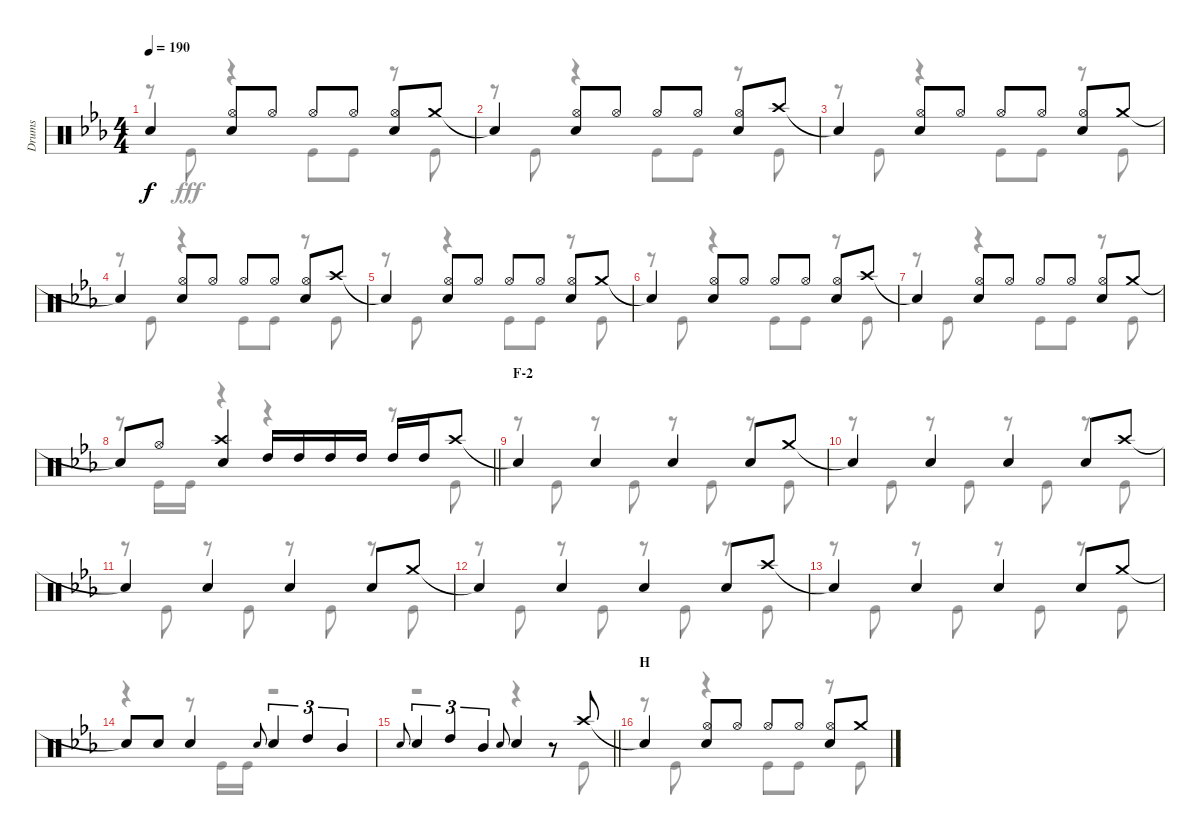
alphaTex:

\track ("Drums" "Drums") {instrument percussion}
\staff {score}
\articulation defaults
\voice
\ts (4 4)
\tempo 190
\clef neutral
\ks eb "Snare (hit)"{t}.4{dy f}
("Hi-Hat (open)" "Snare (hit) 2").8 "Hi-Hat (open)".8 "Hi-Hat (open)".8 "Hi-Hat (open)".8 ("Hi-Hat (open)" "Snare (hit) 2").8 "Crash medium (hit)".8 |
"Snare (hit)"{t}.4 ("Hi-Hat (open)" "Snare (hit) 2").8 "Hi-Hat (open)".8 "Hi-Hat (open)".8 "Hi-Hat (open)".8 ("Hi-Hat (open)" "Snare (hit) 2").8 "Crash high (hit)".8 |
"Snare (hit)"{t}.4 ("Hi-Hat (open)" "Snare (hit) 2").8 "Hi-Hat (open)".8 "Hi-Hat (open)".8 "Hi-Hat (open)".8 ("Hi-Hat (open)" "Snare (hit) 2").8 "Crash medium (hit)".8 |
"Snare (hit)"{t}.4 ("Hi-Hat (open)" "Snare (hit) 2").8 "Hi-Hat (open)".8 "Hi-Hat (open)".8 "Hi-Hat (open)".8 ("Hi-Hat (open)" "Snare (hit) 2").8 "Crash high (hit)".8 |
"Snare (hit)"{t}.4 ("Hi-Hat (open)" "Snare (hit) 2").8 "Hi-Hat (open)".8 "Hi-Hat (open)".8 "Hi-Hat (open)".8 ("Hi-Hat (open)" "Snare (hit) 2").8 "Crash medium (hit)".8 |
"Snare (hit)"{t}.4 ("Hi-Hat (open)" "Snare (hit) 2").8 "Hi-Hat (open)".8 "Hi-Hat (open)".8 "Hi-Hat (open)".8 ("Hi-Hat (open)" "Snare (hit) 2").8 "Crash high (hit)".8 |
"Snare (hit)"{t}.4 ("Hi-Hat (open)" "Snare (hit) 2").8 "Hi-Hat (open)".8 "Hi-Hat (open)".8 "Hi-Hat (open)".8 ("Hi-Hat (open)" "Snare (hit) 2").8 "Crash medium (hit)".8 |
\barLineRight lightlight "Snare (hit)"{t}.8 "Hi-Hat (open)".8
("Crash high (hit)" "Snare (hit) 2").4 "High Tom (hit)".16 "High Tom (hit)".16 "High Tom (hit)".16 "High Tom (hit)".16 "High Tom (hit)".16 "High Tom (hit)".16 "Crash high (hit)".8 |
\section ("" "F-2")
"Snare (hit)"{t}.4 "Snare (hit) 2".4 "Snare (hit) 2".4 "Snare (hit) 2".8 "Crash medium (hit)".8 |
"Snare (hit)"{t}.4 "Snare (hit) 2".4 "Snare (hit) 2".4 "Snare (hit) 2".8 "Crash high (hit)".8 |
"Snare (hit)"{t}.4 "Snare (hit) 2".4 "Snare (hit) 2".4 "Snare (hit) 2".8 "Crash medium (hit)".8 |
"Snare (hit)"{t}.4 "Snare (hit) 2".4 "Snare (hit) 2".4 "Snare (hit) 2".8 "Crash high (hit)".8 |
"Snare (hit)"{t}.4 "Snare (hit) 2".4 "Snare (hit) 2".4 "Snare (hit) 2".8 "Crash medium (hit)".8 |
"Snare (hit)"{t}.8 "Snare (hit) 2".8 "Snare (hit) 2".4 "Snare (hit) 2".8{gr onbeat} "Snare (hit) 2".4{tu (3 2)} "High Tom (hit)".4{tu (3 2)} "Mid Tom (hit)".4{tu (3 2)} |
\barLineRight lightlight "Snare (hit) 2".8{gr onbeat} "Snare (hit) 2".4{tu (3 2)} "High Tom (hit)".4{tu (3 2)} "Mid Tom (hit)".4{tu (3 2)} "Snare (hit) 2".8{gr onbeat} "Snare (hit) 2".4
r.8 "Crash high (hit)".8 |
\section ("" "H")
"Snare (hit)"{t}.4 ("Hi-Hat (open)" "Snare (hit) 2").8 "Hi-Hat (open)".8 "Hi-Hat (open)".8 "Hi-Hat (open)".8 ("Hi-Hat (open)" "Snare (hit) 2").8 "Crash medium (hit)".8
\voice
\clef neutral
\ottava regular
\simile none
\ks eb
r.8{dy fff} "Kick (hit)".8 r.4 "Kick (hit)".8 "Kick (hit)".8 r.8 "Kick (hit)".8 |
r.8 "Kick (hit)".8 r.4 "Kick (hit)".8 "Kick (hit)".8 r.8 "Kick (hit)".8 |
r.8 "Kick (hit)".8 r.4 "Kick (hit)".8 "Kick (hit)".8 r.8 "Kick (hit)".8 |
r.8 "Kick (hit)".8 r.4 "Kick (hit)".8 "Kick (hit)".8 r.8 "Kick (hit)".8 |
r.8 "Kick (hit)".8 r.4 "Kick (hit)".8 "Kick (hit)".8 r.8 "Kick (hit)".8 |
r.8 "Kick (hit)".8 r.4 "Kick (hit)".8 "Kick (hit)".8 r.8 "Kick (hit)".8 |
r.8 "Kick (hit)".8 r.4 "Kick (hit)".8 "Kick (hit)".8 r.8 "Kick (hit)".8 |
\barLineRight lightlight
r.8 "Kick (hit)".16 "Kick (hit)".16 r.4 r.4 r.8 "Kick (hit)".8 |
r.8 "Kick (hit)".8 r.8 "Kick (hit)".8 r.8 "Kick (hit)".8 r.8 "Kick (hit)".8 |
r.8 "Kick (hit)".8 r.8 "Kick (hit)".8 r.8 "Kick (hit)".8 r.8 "Kick (hit)".8 |
r.8 "Kick (hit)".8 r.8 "Kick (hit)".8 r.8 "Kick (hit)".8 r.8 "Kick (hit)".8 |
r.8 "Kick (hit)".8 r.8 "Kick (hit)".8 r.8 "Kick (hit)".8 r.8 "Kick (hit)".8 |
r.8 "Kick (hit)".8 r.8 "Kick (hit)".8 r.8 "Kick (hit)".8 r.8 "Kick (hit)".8 |
r.4 r.8 "Kick (hit)".16 "Kick (hit)".16 r.2 |
\barLineRight lightlight
r.2 r.4 r.8 "Kick (hit)".8 |
r.8 "Kick (hit)".8 r.4 "Kick (hit)".8 "Kick (hit)".8 r.8 "Kick (hit)".8
